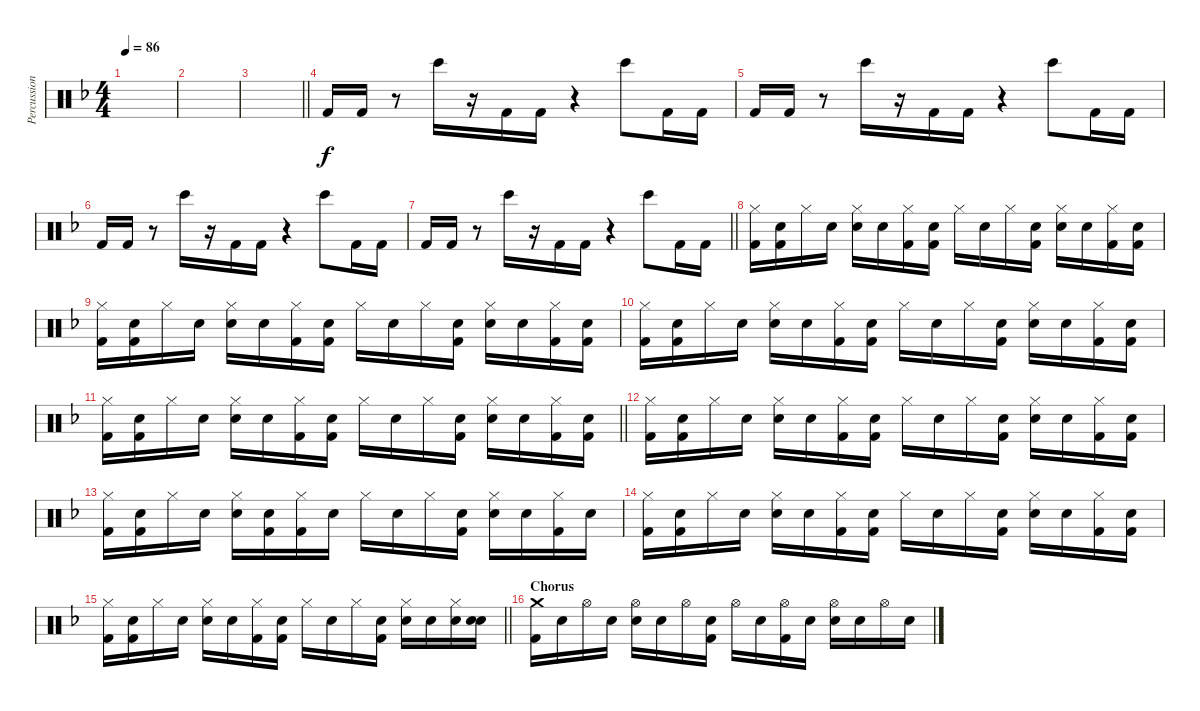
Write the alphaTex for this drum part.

\track ("Percussion" "Percussion") {instrument percussion}
\staff {score}
\articulation defaults
\ts (4 4)
\tempo 86
\clef neutral
\ks f
|
|
\barLineRight lightlight
|
"Kick (hit) 2".16{dy f} "Kick (hit) 2".16 r.8 "Bongo High (hit)".16 r.16 "Kick (hit) 2".16 "Kick (hit) 2".16 r.4 "Bongo High (hit)".8 "Kick (hit) 2".16 "Kick (hit) 2".16 |
"Kick (hit) 2".16 "Kick (hit) 2".16 r.8 "Bongo High (hit)".16 r.16 "Kick (hit) 2".16 "Kick (hit) 2".16 r.4 "Bongo High (hit)".8 "Kick (hit) 2".16 "Kick (hit) 2".16 |
"Kick (hit) 2".16 "Kick (hit) 2".16 r.8 "Bongo High (hit)".16 r.16 "Kick (hit) 2".16 "Kick (hit) 2".16 r.4 "Bongo High (hit)".8 "Kick (hit) 2".16 "Kick (hit) 2".16 |
\barLineRight lightlight "Kick (hit) 2".16 "Kick (hit) 2".16
r.8 "Bongo High (hit)".16 r.16 "Kick (hit) 2".16 "Kick (hit) 2".16 r.4 "Bongo High (hit)".8 "Kick (hit) 2".16 "Kick (hit) 2".16 |
("Hi-Hat (closed)" "Kick (hit) 2").16 ("Snare (hit)" "Kick (hit) 2").16 "Hi-Hat (closed)".16 "Snare (hit)".16 ("Hi-Hat (closed)" "Electric Snare (hit)").16 "Snare (hit)".16 ("Hi-Hat (closed)" "Kick (hit) 2").16 ("Snare (hit)" "Kick (hit) 2").16 "Hi-Hat (closed)".16 "Snare (hit)".16 "Hi-Hat (closed)".16 ("Snare (hit)" "Kick (hit) 2").16 ("Hi-Hat (closed)" "Electric Snare (hit)").16 "Snare (hit)".16 ("Hi-Hat (closed)" "Kick (hit) 2").16 ("Snare (hit)" "Kick (hit) 2").16 |
("Hi-Hat (closed)" "Kick (hit) 2").16 ("Snare (hit)" "Kick (hit) 2").16 "Hi-Hat (closed)".16 "Snare (hit)".16 ("Hi-Hat (closed)" "Electric Snare (hit)").16 "Snare (hit)".16 ("Hi-Hat (closed)" "Kick (hit) 2").16 ("Snare (hit)" "Kick (hit) 2").16 "Hi-Hat (closed)".16 "Snare (hit)".16 "Hi-Hat (closed)".16 ("Snare (hit)" "Kick (hit) 2").16 ("Hi-Hat (closed)" "Electric Snare (hit)").16 "Snare (hit)".16 ("Hi-Hat (closed)" "Kick (hit) 2").16 ("Snare (hit)" "Kick (hit) 2").16 |
("Hi-Hat (closed)" "Kick (hit) 2").16 ("Snare (hit)" "Kick (hit) 2").16 "Hi-Hat (closed)".16 "Snare (hit)".16 ("Hi-Hat (closed)" "Electric Snare (hit)").16 "Snare (hit)".16 ("Hi-Hat (closed)" "Kick (hit) 2").16 ("Snare (hit)" "Kick (hit) 2").16 "Hi-Hat (closed)".16 "Snare (hit)".16 "Hi-Hat (closed)".16 ("Snare (hit)" "Kick (hit) 2").16 ("Hi-Hat (closed)" "Electric Snare (hit)").16 "Snare (hit)".16 ("Hi-Hat (closed)" "Kick (hit) 2").16 ("Snare (hit)" "Kick (hit) 2").16 |
\barLineRight lightlight
("Hi-Hat (closed)" "Kick (hit) 2").16 ("Snare (hit)" "Kick (hit) 2").16 "Hi-Hat (closed)".16 "Snare (hit)".16 ("Hi-Hat (closed)" "Electric Snare (hit)").16 "Snare (hit)".16 ("Hi-Hat (closed)" "Kick (hit) 2").16 ("Snare (hit)" "Kick (hit) 2").16 "Hi-Hat (closed)".16 "Snare (hit)".16 "Hi-Hat (closed)".16 ("Snare (hit)" "Kick (hit) 2").16 ("Hi-Hat (closed)" "Electric Snare (hit)").16 "Snare (hit)".16 ("Hi-Hat (closed)" "Kick (hit) 2").16 ("Snare (hit)" "Kick (hit) 2").16 |
("Hi-Hat (closed)" "Kick (hit) 2").16 ("Snare (hit)" "Kick (hit) 2").16 "Hi-Hat (closed)".16 "Snare (hit)".16 ("Hi-Hat (closed)" "Electric Snare (hit)").16 "Snare (hit)".16 ("Hi-Hat (closed)" "Kick (hit) 2").16 ("Snare (hit)" "Kick (hit) 2").16 "Hi-Hat (closed)".16 "Snare (hit)".16 "Hi-Hat (closed)".16 ("Snare (hit)" "Kick (hit) 2").16 ("Hi-Hat (closed)" "Electric Snare (hit)").16 "Snare (hit)".16 ("Hi-Hat (closed)" "Kick (hit) 2").16 ("Snare (hit)" "Kick (hit) 2").16 |
("Hi-Hat (closed)" "Kick (hit) 2").16 ("Snare (hit)" "Kick (hit) 2").16 "Hi-Hat (closed)".16 "Snare (hit)".16 ("Hi-Hat (closed)" "Electric Snare (hit)").16 ("Snare (hit)" "Kick (hit) 2").16 ("Hi-Hat (closed)" "Kick (hit) 2").16 "Snare (hit)".16 "Hi-Hat (closed)".16 "Snare (hit)".16 "Hi-Hat (closed)".16 ("Snare (hit)" "Kick (hit) 2").16 ("Hi-Hat (closed)" "Electric Snare (hit)").16 "Snare (hit)".16 ("Hi-Hat (closed)" "Kick (hit) 2").16 "Snare (hit)".16 |
("Hi-Hat (closed)" "Kick (hit) 2").16 ("Snare (hit)" "Kick (hit) 2").16 "Hi-Hat (closed)".16 "Snare (hit)".16 ("Hi-Hat (closed)" "Electric Snare (hit)").16 "Snare (hit)".16 ("Hi-Hat (closed)" "Kick (hit) 2").16 ("Snare (hit)" "Kick (hit) 2").16 "Hi-Hat (closed)".16 "Snare (hit)".16 "Hi-Hat (closed)".16 ("Snare (hit)" "Kick (hit) 2").16 ("Hi-Hat (closed)" "Electric Snare (hit)").16 "Snare (hit)".16 ("Hi-Hat (closed)" "Kick (hit) 2").16 ("Snare (hit)" "Kick (hit) 2").16 |
\barLineRight lightlight
("Hi-Hat (closed)" "Kick (hit) 2").16 ("Snare (hit)" "Kick (hit) 2").16 "Hi-Hat (closed)".16 "Snare (hit)".16 ("Hi-Hat (closed)" "Electric Snare (hit)").16 "Snare (hit)".16 ("Hi-Hat (closed)" "Kick (hit) 2").16 ("Snare (hit)" "Kick (hit) 2").16 "Hi-Hat (closed)".16 "Snare (hit)".16 "Hi-Hat (closed)".16 ("Snare (hit)" "Kick (hit) 2").16 ("Hi-Hat (closed)" "Electric Snare (hit)").16 "Snare (hit)".16 ("Hi-Hat (closed)" "Electric Snare (hit)").16 ("Snare (hit)" "Electric Snare (hit)").16 |
\section ("" "Chorus")
("Crash medium (hit)" "Kick (hit) 2").16 "Snare (hit)".16 "Hi-Hat (open)".16 "Snare (hit)".16 ("Hi-Hat (open)" "Electric Snare (hit)").16 "Snare (hit)".16 "Hi-Hat (open)".16 ("Snare (hit)" "Kick (hit) 2").16 "Hi-Hat (open)".16 "Snare (hit)".16 ("Hi-Hat (open)" "Kick (hit) 2").16 "Snare (hit)".16 ("Hi-Hat (open)" "Electric Snare (hit)").16 "Snare (hit)".16 "Hi-Hat (open)".16 "Snare (hit)".16
